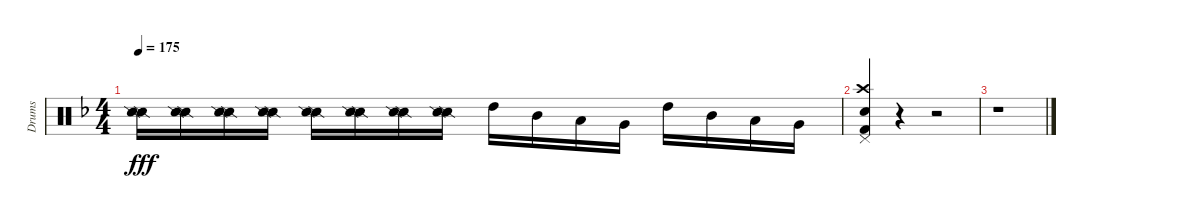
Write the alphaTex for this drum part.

\track ("Drums" "Drums") {instrument percussion}
\staff {score}
\articulation defaults
\ts (4 4)
\tempo 175
\clef neutral
\ks f
("Snare (side stick) 2" "Snare (side stick) 2").16{dy fff} ("Snare (side stick) 2" "Snare (side stick) 2").16 ("Snare (side stick) 2" "Snare (side stick) 2").16 ("Snare (side stick) 2" "Snare (side stick) 2").16 ("Snare (side stick) 2" "Snare (side stick) 2").16 ("Snare (side stick) 2" "Snare (side stick) 2").16 ("Snare (side stick) 2" "Snare (side stick) 2").16 ("Snare (side stick) 2" "Snare (side stick) 2").16 "High Tom (hit)".16 "Mid Tom (hit)".16 "Low Tom (hit)".16 "Very Low Tom (hit)".16 "High Tom (hit)".16 "Mid Tom (hit)".16 "Low Tom (hit)".16 "Very Low Tom (hit)".16 |
("Pedal Hi-Hat (hit)" "Crash high (hit)" "Snare (hit) 2" "Kick (hit) 2").4 r.4 r.2 |
r.1
